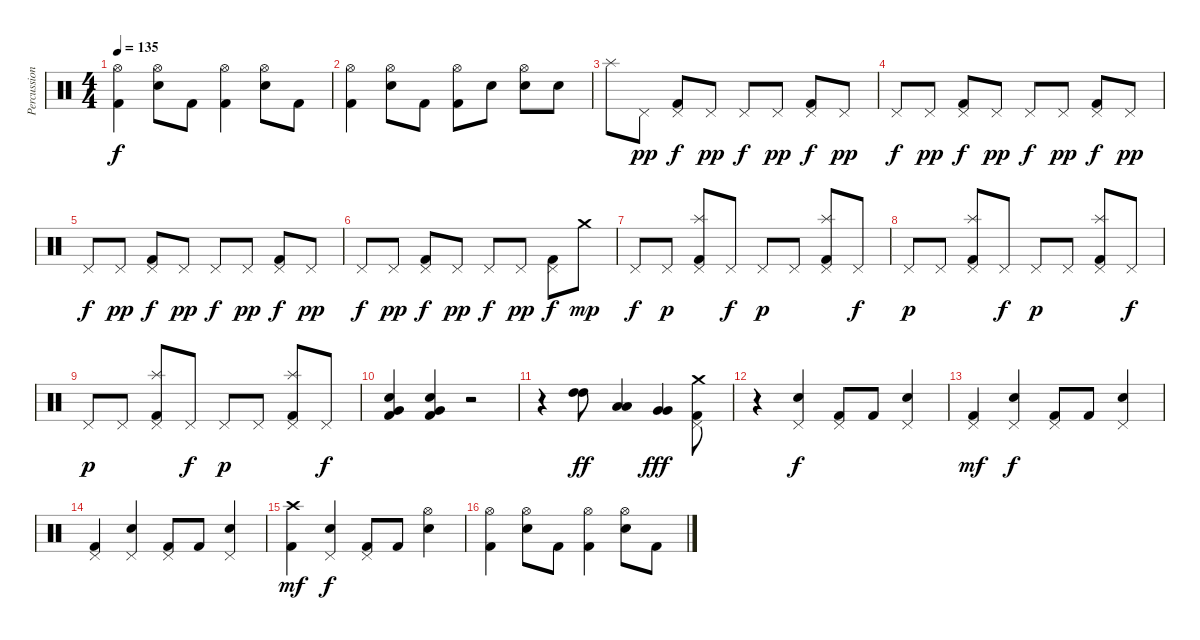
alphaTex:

\track ("Percussion" "Percussion") {instrument percussion}
\staff {score}
\articulation defaults
\ts (4 4)
\tempo 135
\clef neutral
\ks c
("Hi-Hat (open)" "Kick (hit) 2").4{dy f} ("Hi-Hat (open)" "Snare (hit) 2").8 "Kick (hit) 2".8 ("Hi-Hat (open)" "Kick (hit) 2").4 ("Hi-Hat (open)" "Snare (hit) 2").8 "Kick (hit) 2".8 |
("Hi-Hat (open)" "Kick (hit) 2").4 ("Hi-Hat (open)" "Snare (hit) 2").8 "Kick (hit) 2".8 ("Hi-Hat (open)" "Kick (hit) 2").8 "Snare (hit) 2".8 ("Hi-Hat (open)" "Snare (hit) 2").8 "Snare (hit) 2".8 |
"Splash (hit)".8 "Pedal Hi-Hat (hit)".8{dy pp} ("Pedal Hi-Hat (hit)" "Kick (hit) 2").8{dy f} "Pedal Hi-Hat (hit)".8{dy pp} "Pedal Hi-Hat (hit)".8{dy f} "Pedal Hi-Hat (hit)".8{dy pp} ("Pedal Hi-Hat (hit)" "Kick (hit) 2").8{dy f} "Pedal Hi-Hat (hit)".8{dy pp} |
"Pedal Hi-Hat (hit)".8{dy f} "Pedal Hi-Hat (hit)".8{dy pp} ("Pedal Hi-Hat (hit)" "Kick (hit) 2").8{dy f} "Pedal Hi-Hat (hit)".8{dy pp} "Pedal Hi-Hat (hit)".8{dy f} "Pedal Hi-Hat (hit)".8{dy pp} ("Pedal Hi-Hat (hit)" "Kick (hit) 2").8{dy f} "Pedal Hi-Hat (hit)".8{dy pp} |
"Pedal Hi-Hat (hit)".8{dy f} "Pedal Hi-Hat (hit)".8{dy pp} ("Pedal Hi-Hat (hit)" "Kick (hit) 2").8{dy f} "Pedal Hi-Hat (hit)".8{dy pp} "Pedal Hi-Hat (hit)".8{dy f} "Pedal Hi-Hat (hit)".8{dy pp} ("Pedal Hi-Hat (hit)" "Kick (hit) 2").8{dy f} "Pedal Hi-Hat (hit)".8{dy pp} |
"Pedal Hi-Hat (hit)".8{dy f} "Pedal Hi-Hat (hit)".8{dy pp} ("Pedal Hi-Hat (hit)" "Kick (hit) 2").8{dy f} "Pedal Hi-Hat (hit)".8{dy pp} "Pedal Hi-Hat (hit)".8{dy f} "Pedal Hi-Hat (hit)".8{dy pp} ("Pedal Hi-Hat (hit)" "Kick (hit) 2").8{dy f} "Crash medium (hit)".8{dy mp} |
"Pedal Hi-Hat (hit)".8{dy f} "Pedal Hi-Hat (hit)".8{dy p} ("Pedal Hi-Hat (hit)" "Splash (hit)" "Kick (hit) 2").8 "Pedal Hi-Hat (hit)".8{dy f} "Pedal Hi-Hat (hit)".8{dy p} "Pedal Hi-Hat (hit)".8 ("Pedal Hi-Hat (hit)" "Splash (hit)" "Kick (hit) 2").8 "Pedal Hi-Hat (hit)".8{dy f} |
"Pedal Hi-Hat (hit)".8{dy p} "Pedal Hi-Hat (hit)".8 ("Pedal Hi-Hat (hit)" "Splash (hit)" "Kick (hit) 2").8 "Pedal Hi-Hat (hit)".8{dy f} "Pedal Hi-Hat (hit)".8{dy p} "Pedal Hi-Hat (hit)".8 ("Pedal Hi-Hat (hit)" "Splash (hit)" "Kick (hit) 2").8 "Pedal Hi-Hat (hit)".8{dy f} |
"Pedal Hi-Hat (hit)".8{dy p} "Pedal Hi-Hat (hit)".8 ("Pedal Hi-Hat (hit)" "Splash (hit)" "Kick (hit) 2").8 "Pedal Hi-Hat (hit)".8{dy f} "Pedal Hi-Hat (hit)".8{dy p} "Pedal Hi-Hat (hit)".8 ("Pedal Hi-Hat (hit)" "Splash (hit)" "Kick (hit) 2").8 "Pedal Hi-Hat (hit)".8{dy f} |
("Snare (hit) 2" "Very Low Tom (hit)" "Kick (hit) 2").4{bd 60} ("Snare (hit) 2" "Very Low Tom (hit)" "Kick (hit) 2").4{bd 60} r.2 |
r.4 ("High Tom (hit)" "High Tom (hit)").8{bd 120 dy ff} ("Low Tom (hit)" "Low Tom (hit)").4{bd 120} ("Very Low Tom (hit)" "Very Low Tom (hit)").4{bd 120 dy fff} ("Pedal Hi-Hat (hit)" "Crash medium (hit)" "Kick (hit) 2").8 |
r.4 ("Pedal Hi-Hat (hit)" "Snare (hit) 2").4{dy f} ("Pedal Hi-Hat (hit)" "Kick (hit) 2").8 "Kick (hit) 2".8 ("Pedal Hi-Hat (hit)" "Snare (hit) 2").4 |
("Pedal Hi-Hat (hit)" "Kick (hit) 2").4{dy mf} ("Pedal Hi-Hat (hit)" "Snare (hit) 2").4{dy f} ("Pedal Hi-Hat (hit)" "Kick (hit) 2").8 "Kick (hit) 2".8 ("Pedal Hi-Hat (hit)" "Snare (hit) 2").4 |
("Pedal Hi-Hat (hit)" "Kick (hit) 2").4 ("Pedal Hi-Hat (hit)" "Snare (hit) 2").4 ("Pedal Hi-Hat (hit)" "Kick (hit) 2").8 "Kick (hit) 2".8 ("Pedal Hi-Hat (hit)" "Snare (hit) 2").4 |
("Crash high (hit)" "Kick (hit) 2").4{dy mf} ("Pedal Hi-Hat (hit)" "Snare (hit) 2").4{dy f} ("Pedal Hi-Hat (hit)" "Kick (hit) 2").8 "Kick (hit) 2".8 ("Hi-Hat (open)" "Snare (hit) 2").4 |
("Hi-Hat (open)" "Kick (hit) 2").4 ("Hi-Hat (open)" "Snare (hit) 2").8 "Kick (hit) 2".8 ("Hi-Hat (open)" "Kick (hit) 2").4 ("Hi-Hat (open)" "Snare (hit) 2").8 "Kick (hit) 2".8
